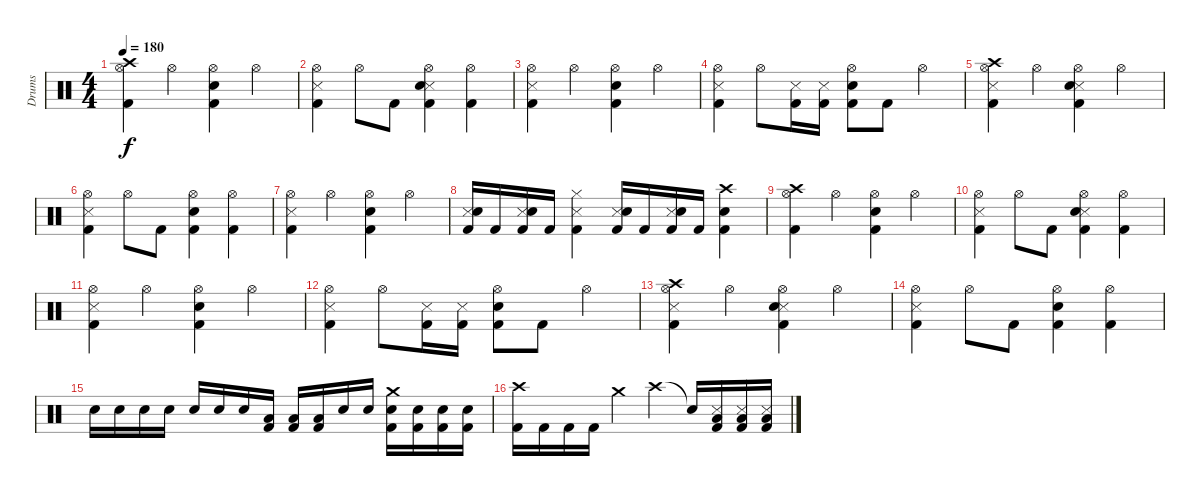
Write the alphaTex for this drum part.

\track ("Drums" "Drums") {instrument percussion}
\staff {score}
\articulation defaults
\ts (4 4)
\tempo 180
\clef neutral
\ks c
("Crash high (hit)" "Hi-Hat (open)" "Kick (hit) 2").4{dy f} "Hi-Hat (open)".4 ("Hi-Hat (open)" "Electric Snare (hit)" "Kick (hit) 2").4 "Hi-Hat (open)".4 |
("Snare (side stick) 3" "Hi-Hat (open)" "Kick (hit) 2").4 "Hi-Hat (open)".8 "Kick (hit) 2".8 ("Snare (side stick) 3" "Hi-Hat (open)" "Electric Snare (hit)" "Kick (hit) 2").4 ("Hi-Hat (open)" "Kick (hit) 2").4 |
("Snare (side stick) 3" "Hi-Hat (open)" "Kick (hit) 2").4 "Hi-Hat (open)".4 ("Hi-Hat (open)" "Electric Snare (hit)" "Kick (hit) 2").4 "Hi-Hat (open)".4 |
("Snare (side stick) 3" "Hi-Hat (open)" "Kick (hit) 2").4 "Hi-Hat (open)".8 ("Snare (side stick) 3" "Kick (hit) 2").16 ("Snare (side stick) 3" "Kick (hit) 2").16 ("Hi-Hat (open)" "Electric Snare (hit)" "Kick (hit) 2").8 "Kick (hit) 2".8 "Hi-Hat (open)".4 |
("Crash high (hit)" "Snare (side stick) 3" "Hi-Hat (open)" "Kick (hit) 2").4 "Hi-Hat (open)".4 ("Snare (side stick) 3" "Hi-Hat (open)" "Electric Snare (hit)" "Kick (hit) 2").4 "Hi-Hat (open)".4 |
("Snare (side stick) 3" "Hi-Hat (open)" "Kick (hit) 2").4 "Hi-Hat (open)".8 "Kick (hit) 2".8 ("Hi-Hat (open)" "Electric Snare (hit)" "Kick (hit) 2").4 ("Hi-Hat (open)" "Kick (hit) 2").4 |
("Snare (side stick) 3" "Hi-Hat (open)" "Kick (hit) 2").4 "Hi-Hat (open)".4 ("Hi-Hat (open)" "Electric Snare (hit)" "Kick (hit) 2").4 "Hi-Hat (open)".4 |
("Snare (side stick) 3" "Electric Snare (hit)" "Kick (hit) 2").16 "Kick (hit) 2".16 ("Snare (side stick) 3" "Electric Snare (hit)" "Kick (hit) 2").16 "Kick (hit) 2".16 ("Snare (side stick) 3" "Hi-Hat (closed)" "Kick (hit) 2").4 ("Snare (side stick) 3" "Electric Snare (hit)" "Kick (hit) 2").16 "Kick (hit) 2".16 ("Snare (side stick) 3" "Electric Snare (hit)" "Kick (hit) 2").16 "Kick (hit) 2".16 ("Crash high (hit)" "Electric Snare (hit)" "Kick (hit) 2").4 |
("Crash high (hit)" "Hi-Hat (open)" "Kick (hit) 2").4 "Hi-Hat (open)".4 ("Hi-Hat (open)" "Electric Snare (hit)" "Kick (hit) 2").4 "Hi-Hat (open)".4 |
("Snare (side stick) 3" "Hi-Hat (open)" "Kick (hit) 2").4 "Hi-Hat (open)".8 "Kick (hit) 2".8 ("Snare (side stick) 3" "Hi-Hat (open)" "Electric Snare (hit)" "Kick (hit) 2").4 ("Hi-Hat (open)" "Kick (hit) 2").4 |
("Snare (side stick) 3" "Hi-Hat (open)" "Kick (hit) 2").4 "Hi-Hat (open)".4 ("Hi-Hat (open)" "Electric Snare (hit)" "Kick (hit) 2").4 "Hi-Hat (open)".4 |
("Snare (side stick) 3" "Hi-Hat (open)" "Kick (hit) 2").4 "Hi-Hat (open)".8 ("Snare (side stick) 3" "Kick (hit) 2").16 ("Snare (side stick) 3" "Kick (hit) 2").16 ("Hi-Hat (open)" "Electric Snare (hit)" "Kick (hit) 2").8 "Kick (hit) 2".8 "Hi-Hat (open)".4 |
("Crash high (hit)" "Snare (side stick) 3" "Hi-Hat (open)" "Kick (hit) 2").4 "Hi-Hat (open)".4 ("Snare (side stick) 3" "Hi-Hat (open)" "Electric Snare (hit)" "Kick (hit) 2").4 "Hi-Hat (open)".4 |
("Snare (side stick) 3" "Hi-Hat (open)" "Kick (hit) 2").4 "Hi-Hat (open)".8 "Kick (hit) 2".8 ("Hi-Hat (open)" "Electric Snare (hit)" "Kick (hit) 2").4 ("Hi-Hat (open)" "Kick (hit) 2").4 |
"Electric Snare (hit)".16 "Electric Snare (hit)".16 "Electric Snare (hit)".16 "Electric Snare (hit)".16 "Electric Snare (hit)".16 "Electric Snare (hit)".16 "Electric Snare (hit)".16 ("Low Floor Tom (hit)" "Kick (hit) 2").16 ("Low Floor Tom (hit)" "Kick (hit) 2").16 ("Low Floor Tom (hit)" "Kick (hit) 2").16 "Electric Snare (hit)".16 "Electric Snare (hit)".16 ("Crash medium (hit)" "Electric Snare (hit)" "Kick (hit) 2").16 ("Electric Snare (hit)" "Kick (hit) 2").16 ("Electric Snare (hit)" "Kick (hit) 2").16 ("Electric Snare (hit)" "Kick (hit) 2").16 |
("Crash high (hit)" "Kick (hit) 2").16 "Kick (hit) 2".16 "Kick (hit) 2".16 "Kick (hit) 2".16 "Crash medium (hit)".4 "Crash high (hit)".4 "Snare (hit)"{t}.16 ("Snare (side stick) 3" "Low Floor Tom (hit)" "Kick (hit) 2").16 ("Snare (side stick) 3" "Low Floor Tom (hit)" "Kick (hit) 2").16 ("Snare (side stick) 3" "Low Floor Tom (hit)" "Kick (hit) 2").16
